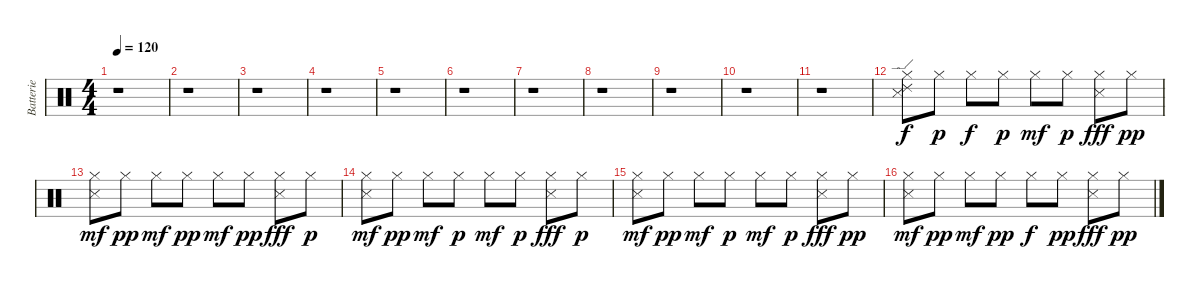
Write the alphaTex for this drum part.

\track ("Batterie" "Batterie") {instrument percussion}
\staff {score}
\articulation defaults
\ts (4 4)
\tempo 120
\clef neutral
\ks c
r.1{dy f} |
r.1 |
r.1 |
r.1 |
r.1 |
r.1 |
r.1 |
r.1 |
r.1 |
r.1 |
r.1 |
("Metronome (hit)" "Hi-Hat (closed)" "Ride (edge) 2").8 "Hi-Hat (closed)".8{dy p} "Hi-Hat (closed)".8{dy f} "Hi-Hat (closed)".8{dy p} "Hi-Hat (closed)".8{dy mf} "Hi-Hat (closed)".8{dy p} ("Snare (side stick) 3" "Hi-Hat (closed)").8{dy fff} "Hi-Hat (closed)".8{dy pp} |
("Metronome (hit)" "Hi-Hat (closed)").8{dy mf} "Hi-Hat (closed)".8{dy pp} "Hi-Hat (closed)".8{dy mf} "Hi-Hat (closed)".8{dy pp} "Hi-Hat (closed)".8{dy mf} "Hi-Hat (closed)".8{dy pp} ("Snare (side stick) 3" "Hi-Hat (closed)").8{dy fff} "Hi-Hat (closed)".8{dy p} |
("Metronome (hit)" "Hi-Hat (closed)").8{dy mf} "Hi-Hat (closed)".8{dy pp} "Hi-Hat (closed)".8{dy mf} "Hi-Hat (closed)".8{dy p} "Hi-Hat (closed)".8{dy mf} "Hi-Hat (closed)".8{dy p} ("Snare (side stick) 3" "Hi-Hat (closed)").8{dy fff} "Hi-Hat (closed)".8{dy p} |
("Metronome (hit)" "Hi-Hat (closed)").8{dy mf} "Hi-Hat (closed)".8{dy pp} "Hi-Hat (closed)".8{dy mf} "Hi-Hat (closed)".8{dy p} "Hi-Hat (closed)".8{dy mf} "Hi-Hat (closed)".8{dy p} ("Snare (side stick) 3" "Hi-Hat (closed)").8{dy fff} "Hi-Hat (closed)".8{dy pp} |
("Metronome (hit)" "Hi-Hat (closed)").8{dy mf} "Hi-Hat (closed)".8{dy pp} "Hi-Hat (closed)".8{dy mf} "Hi-Hat (closed)".8{dy pp} "Hi-Hat (closed)".8{dy f} "Hi-Hat (closed)".8{dy pp} ("Snare (side stick) 3" "Hi-Hat (closed)").8{dy fff} "Hi-Hat (closed)".8{dy pp}
